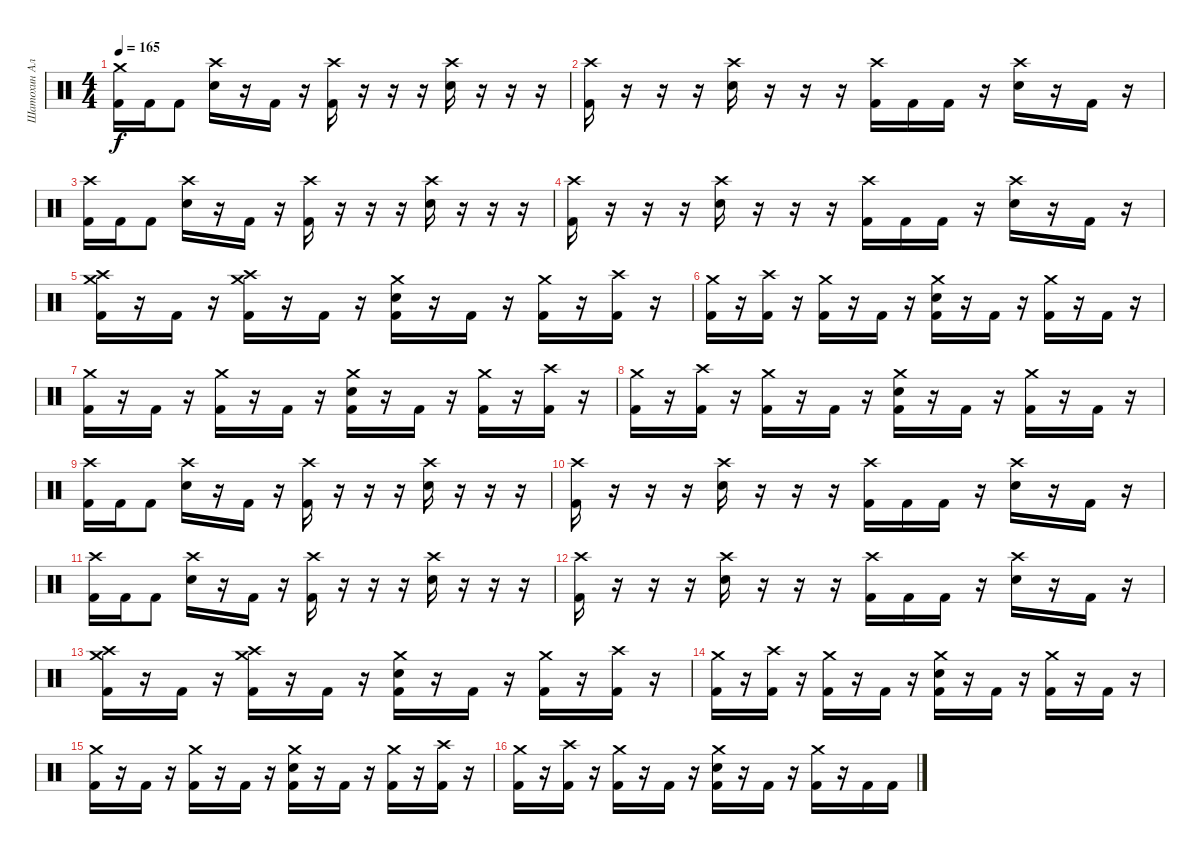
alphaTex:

\track ("Шатохин Алексей" "Шатохин Ал") {instrument percussion}
\staff {score}
\articulation defaults
\ts (4 4)
\tempo 165
\clef neutral
\ks c
("Crash medium (hit)" "Kick (hit) 2").16{dy f} "Kick (hit) 2".16 "Kick (hit) 2".8 ("Crash high (hit)" "Electric Snare (hit)").16 r.16 "Kick (hit) 2".16 r.16 ("Crash high (hit)" "Kick (hit) 2").16 r.16 r.16 r.16 ("Crash high (hit)" "Electric Snare (hit)").16 r.16 r.16 r.16 |
("Crash high (hit)" "Kick (hit) 2").16 r.16 r.16 r.16 ("Crash high (hit)" "Electric Snare (hit)").16 r.16 r.16 r.16 ("Crash high (hit)" "Kick (hit) 2").16 "Kick (hit) 2".16 "Kick (hit) 2".16 r.16 ("Crash high (hit)" "Electric Snare (hit)").16 r.16 "Kick (hit) 2".16 r.16 |
("Crash high (hit)" "Kick (hit) 2").16 "Kick (hit) 2".16 "Kick (hit) 2".8 ("Crash high (hit)" "Electric Snare (hit)").16 r.16 "Kick (hit) 2".16 r.16 ("Crash high (hit)" "Kick (hit) 2").16 r.16 r.16 r.16 ("Crash high (hit)" "Electric Snare (hit)").16 r.16 r.16 r.16 |
("Crash high (hit)" "Kick (hit) 2").16 r.16 r.16 r.16 ("Crash high (hit)" "Electric Snare (hit)").16 r.16 r.16 r.16 ("Crash high (hit)" "Kick (hit) 2").16 "Kick (hit) 2".16 "Kick (hit) 2".16 r.16 ("Crash high (hit)" "Electric Snare (hit)").16 r.16 "Kick (hit) 2".16 r.16 |
("Kick (hit) 2" "Crash medium (hit)" "Crash high (hit)").16 r.16 "Kick (hit) 2".16 r.16 ("Kick (hit) 2" "Crash medium (hit)" "Crash high (hit)").16 r.16 "Kick (hit) 2".16 r.16 ("Kick (hit) 2" "Electric Snare (hit)" "Crash medium (hit)").16 r.16 "Kick (hit) 2".16 r.16 ("Kick (hit) 2" "Crash medium (hit)").16 r.16 ("Kick (hit) 2" "Crash high (hit)").16 r.16 |
("Kick (hit) 2" "Crash medium (hit)").16 r.16 ("Kick (hit) 2" "Crash high (hit)").16 r.16 ("Kick (hit) 2" "Crash medium (hit)").16 r.16 "Kick (hit) 2".16 r.16 ("Kick (hit) 2" "Electric Snare (hit)" "Crash medium (hit)").16 r.16 "Kick (hit) 2".16 r.16 ("Kick (hit) 2" "Crash medium (hit)").16 r.16 "Kick (hit) 2".16 r.16 |
("Kick (hit) 2" "Crash medium (hit)").16 r.16 "Kick (hit) 2".16 r.16 ("Kick (hit) 2" "Crash medium (hit)").16 r.16 "Kick (hit) 2".16 r.16 ("Kick (hit) 2" "Electric Snare (hit)" "Crash medium (hit)").16 r.16 "Kick (hit) 2".16 r.16 ("Kick (hit) 2" "Crash medium (hit)").16 r.16 ("Kick (hit) 2" "Crash high (hit)").16 r.16 |
("Kick (hit) 2" "Crash medium (hit)").16 r.16 ("Kick (hit) 2" "Crash high (hit)").16 r.16 ("Kick (hit) 2" "Crash medium (hit)").16 r.16 "Kick (hit) 2".16 r.16 ("Kick (hit) 2" "Crash medium (hit)" "Electric Snare (hit)").16 r.16 "Kick (hit) 2".16 r.16 ("Kick (hit) 2" "Crash medium (hit)").16 r.16 "Kick (hit) 2".16 r.16 |
("Crash high (hit)" "Kick (hit) 2").16 "Kick (hit) 2".16 "Kick (hit) 2".8 ("Crash high (hit)" "Electric Snare (hit)").16 r.16 "Kick (hit) 2".16 r.16 ("Crash high (hit)" "Kick (hit) 2").16 r.16 r.16 r.16 ("Crash high (hit)" "Electric Snare (hit)").16 r.16 r.16 r.16 |
("Crash high (hit)" "Kick (hit) 2").16 r.16 r.16 r.16 ("Crash high (hit)" "Electric Snare (hit)").16 r.16 r.16 r.16 ("Crash high (hit)" "Kick (hit) 2").16 "Kick (hit) 2".16 "Kick (hit) 2".16 r.16 ("Crash high (hit)" "Electric Snare (hit)").16 r.16 "Kick (hit) 2".16 r.16 |
("Crash high (hit)" "Kick (hit) 2").16 "Kick (hit) 2".16 "Kick (hit) 2".8 ("Crash high (hit)" "Electric Snare (hit)").16 r.16 "Kick (hit) 2".16 r.16 ("Crash high (hit)" "Kick (hit) 2").16 r.16 r.16 r.16 ("Crash high (hit)" "Electric Snare (hit)").16 r.16 r.16 r.16 |
("Crash high (hit)" "Kick (hit) 2").16 r.16 r.16 r.16 ("Crash high (hit)" "Electric Snare (hit)").16 r.16 r.16 r.16 ("Crash high (hit)" "Kick (hit) 2").16 "Kick (hit) 2".16 "Kick (hit) 2".16 r.16 ("Crash high (hit)" "Electric Snare (hit)").16 r.16 "Kick (hit) 2".16 r.16 |
("Kick (hit) 2" "Crash medium (hit)" "Crash high (hit)").16 r.16 "Kick (hit) 2".16 r.16 ("Kick (hit) 2" "Crash medium (hit)" "Crash high (hit)").16 r.16 "Kick (hit) 2".16 r.16 ("Kick (hit) 2" "Electric Snare (hit)" "Crash medium (hit)").16 r.16 "Kick (hit) 2".16 r.16 ("Kick (hit) 2" "Crash medium (hit)").16 r.16 ("Kick (hit) 2" "Crash high (hit)").16 r.16 |
("Kick (hit) 2" "Crash medium (hit)").16 r.16 ("Kick (hit) 2" "Crash high (hit)").16 r.16 ("Kick (hit) 2" "Crash medium (hit)").16 r.16 "Kick (hit) 2".16 r.16 ("Kick (hit) 2" "Electric Snare (hit)" "Crash medium (hit)").16 r.16 "Kick (hit) 2".16 r.16 ("Kick (hit) 2" "Crash medium (hit)").16 r.16 "Kick (hit) 2".16 r.16 |
("Kick (hit) 2" "Crash medium (hit)").16 r.16 "Kick (hit) 2".16 r.16 ("Kick (hit) 2" "Crash medium (hit)").16 r.16 "Kick (hit) 2".16 r.16 ("Kick (hit) 2" "Electric Snare (hit)" "Crash medium (hit)").16 r.16 "Kick (hit) 2".16 r.16 ("Kick (hit) 2" "Crash medium (hit)").16 r.16 ("Kick (hit) 2" "Crash high (hit)").16 r.16 |
("Kick (hit) 2" "Crash medium (hit)").16 r.16 ("Kick (hit) 2" "Crash high (hit)").16 r.16 ("Kick (hit) 2" "Crash medium (hit)").16 r.16 "Kick (hit) 2".16 r.16 ("Kick (hit) 2" "Crash medium (hit)" "Electric Snare (hit)").16 r.16 "Kick (hit) 2".16 r.16 ("Kick (hit) 2" "Crash medium (hit)").16 r.16 "Kick (hit) 2".16 "Kick (hit) 2".16
